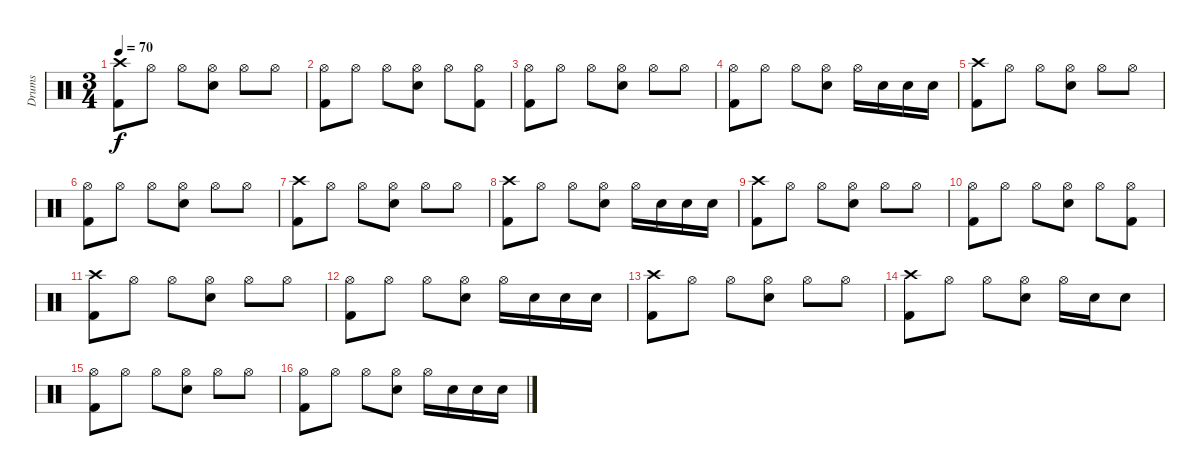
\track ("Drums" "Drums") {instrument percussion}
\staff {score}
\articulation defaults
\ts (3 4)
\tempo 70
\clef neutral
\ks c
("Crash high (hit)" "Kick (hit) 2").8{dy f} "Hi-Hat (open)".8 "Hi-Hat (open)".8 ("Hi-Hat (open)" "Electric Snare (hit)").8 "Hi-Hat (open)".8 "Hi-Hat (open)".8 |
("Hi-Hat (open)" "Kick (hit) 2").8 "Hi-Hat (open)".8 "Hi-Hat (open)".8 ("Hi-Hat (open)" "Electric Snare (hit)").8 "Hi-Hat (open)".8 ("Hi-Hat (open)" "Kick (hit) 2").8 |
("Hi-Hat (open)" "Kick (hit) 2").8 "Hi-Hat (open)".8 "Hi-Hat (open)".8 ("Hi-Hat (open)" "Electric Snare (hit)").8 "Hi-Hat (open)".8 "Hi-Hat (open)".8 |
("Hi-Hat (open)" "Kick (hit) 2").8 "Hi-Hat (open)".8 "Hi-Hat (open)".8 ("Hi-Hat (open)" "Electric Snare (hit)").8 "Hi-Hat (open)".16 "Electric Snare (hit)".16 "Electric Snare (hit)".16 "Electric Snare (hit)".16 |
("Crash high (hit)" "Kick (hit) 2").8 "Hi-Hat (open)".8 "Hi-Hat (open)".8 ("Hi-Hat (open)" "Electric Snare (hit)").8 "Hi-Hat (open)".8 "Hi-Hat (open)".8 |
("Hi-Hat (open)" "Kick (hit) 2").8 "Hi-Hat (open)".8 "Hi-Hat (open)".8 ("Hi-Hat (open)" "Electric Snare (hit)").8 "Hi-Hat (open)".8 "Hi-Hat (open)".8 |
("Crash high (hit)" "Kick (hit) 2").8 "Hi-Hat (open)".8 "Hi-Hat (open)".8 ("Hi-Hat (open)" "Electric Snare (hit)").8 "Hi-Hat (open)".8 "Hi-Hat (open)".8 |
("Crash high (hit)" "Kick (hit) 2").8 "Hi-Hat (open)".8 "Hi-Hat (open)".8 ("Hi-Hat (open)" "Electric Snare (hit)").8 "Hi-Hat (open)".16 "Electric Snare (hit)".16 "Electric Snare (hit)".16 "Electric Snare (hit)".16 |
("Crash high (hit)" "Kick (hit) 2").8 "Hi-Hat (open)".8 "Hi-Hat (open)".8 ("Hi-Hat (open)" "Electric Snare (hit)").8 "Hi-Hat (open)".8 "Hi-Hat (open)".8 |
("Hi-Hat (open)" "Kick (hit) 2").8 "Hi-Hat (open)".8 "Hi-Hat (open)".8 ("Hi-Hat (open)" "Electric Snare (hit)").8 "Hi-Hat (open)".8 ("Hi-Hat (open)" "Kick (hit) 2").8 |
("Crash high (hit)" "Kick (hit) 2").8 "Hi-Hat (open)".8 "Hi-Hat (open)".8 ("Hi-Hat (open)" "Electric Snare (hit)").8 "Hi-Hat (open)".8 "Hi-Hat (open)".8 |
("Hi-Hat (open)" "Kick (hit) 2").8 "Hi-Hat (open)".8 "Hi-Hat (open)".8 ("Hi-Hat (open)" "Electric Snare (hit)").8 "Hi-Hat (open)".16 "Electric Snare (hit)".16 "Electric Snare (hit)".16 "Electric Snare (hit)".16 |
("Crash high (hit)" "Kick (hit) 2").8 "Hi-Hat (open)".8 "Hi-Hat (open)".8 ("Hi-Hat (open)" "Electric Snare (hit)").8 "Hi-Hat (open)".8 "Hi-Hat (open)".8 |
("Crash high (hit)" "Kick (hit) 2").8 "Hi-Hat (open)".8 "Hi-Hat (open)".8 ("Hi-Hat (open)" "Electric Snare (hit)").8 "Hi-Hat (open)".16 "Electric Snare (hit)".16 "Electric Snare (hit)".8 |
("Hi-Hat (open)" "Kick (hit) 2").8 "Hi-Hat (open)".8 "Hi-Hat (open)".8 ("Hi-Hat (open)" "Electric Snare (hit)").8 "Hi-Hat (open)".8 "Hi-Hat (open)".8 |
("Hi-Hat (open)" "Kick (hit) 2").8 "Hi-Hat (open)".8 "Hi-Hat (open)".8 ("Hi-Hat (open)" "Electric Snare (hit)").8 "Hi-Hat (open)".16 "Electric Snare (hit)".16 "Electric Snare (hit)".16 "Electric Snare (hit)".16
